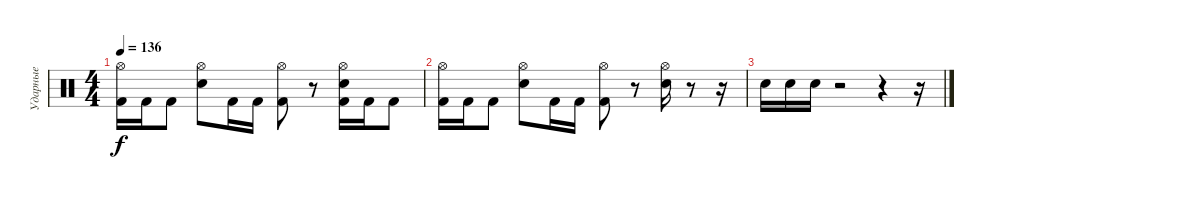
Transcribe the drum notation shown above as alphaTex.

\track ("Ударные" "Ударные") {instrument percussion}
\staff {score}
\articulation defaults
\ts (4 4)
\tempo 136
\clef neutral
\ks c
("Hi-Hat (open)" "Kick (hit) 2").16{dy f} "Kick (hit) 2".16 "Kick (hit) 2".8 ("Hi-Hat (open)" "Snare (hit) 2").8 "Kick (hit) 2".16 "Kick (hit) 2".16 ("Hi-Hat (open)" "Kick (hit) 2").8 r.8 ("Hi-Hat (open)" "Snare (hit) 2" "Kick (hit) 2").16 "Kick (hit) 2".16 "Kick (hit) 2".8 |
("Hi-Hat (open)" "Kick (hit) 2").16 "Kick (hit) 2".16 "Kick (hit) 2".8 ("Hi-Hat (open)" "Snare (hit) 2").8 "Kick (hit) 2".16 "Kick (hit) 2".16 ("Hi-Hat (open)" "Kick (hit) 2").8 r.8 ("Hi-Hat (open)" "Snare (hit) 2").16 r.8 r.16 |
"Snare (hit) 2".16 "Snare (hit) 2".16 "Snare (hit) 2".16 r.2 r.4 r.16
